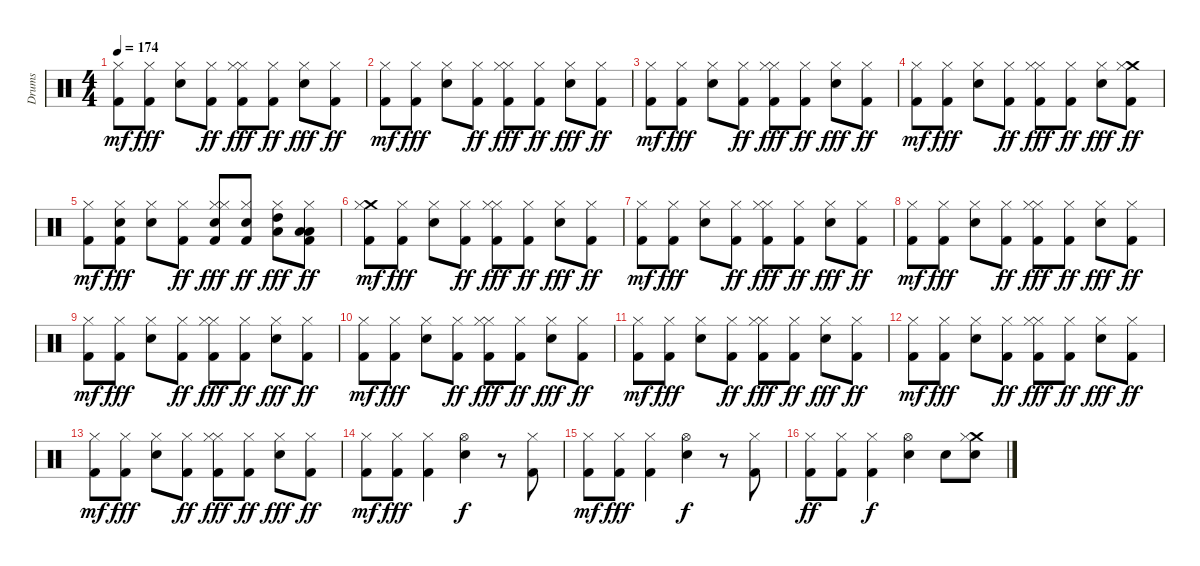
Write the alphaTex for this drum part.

\track ("Drums" "Drums") {instrument percussion}
\staff {score}
\articulation defaults
\ts (4 4)
\tempo 174
\clef neutral
\ks c
("Kick (hit) 2" "Hi-Hat (closed)").8{dy mf} ("Hi-Hat (closed)" "Kick (hit) 2").8{dy fff} ("Hi-Hat (closed)" "Snare (hit) 2").8 ("Hi-Hat (closed)" "Kick (hit) 2").8{dy ff} ("Hi-Hat (closed)" "Hi-Hat (closed)" "Kick (hit) 2").8{dy fff} ("Hi-Hat (closed)" "Kick (hit) 2").8{dy ff} ("Hi-Hat (closed)" "Snare (hit) 2").8{dy fff} ("Hi-Hat (closed)" "Kick (hit) 2").8{dy ff} |
("Kick (hit) 2" "Hi-Hat (closed)").8{dy mf} ("Hi-Hat (closed)" "Kick (hit) 2").8{dy fff} ("Hi-Hat (closed)" "Snare (hit) 2").8 ("Hi-Hat (closed)" "Kick (hit) 2").8{dy ff} ("Hi-Hat (closed)" "Hi-Hat (closed)" "Kick (hit) 2").8{dy fff} ("Hi-Hat (closed)" "Kick (hit) 2").8{dy ff} ("Hi-Hat (closed)" "Snare (hit) 2").8{dy fff} ("Hi-Hat (closed)" "Kick (hit) 2").8{dy ff} |
("Kick (hit) 2" "Hi-Hat (closed)").8{dy mf} ("Hi-Hat (closed)" "Kick (hit) 2").8{dy fff} ("Hi-Hat (closed)" "Snare (hit) 2").8 ("Hi-Hat (closed)" "Kick (hit) 2").8{dy ff} ("Hi-Hat (closed)" "Hi-Hat (closed)" "Kick (hit) 2").8{dy fff} ("Hi-Hat (closed)" "Kick (hit) 2").8{dy ff} ("Hi-Hat (closed)" "Snare (hit) 2").8{dy fff} ("Hi-Hat (closed)" "Kick (hit) 2").8{dy ff} |
("Kick (hit) 2" "Hi-Hat (closed)").8{dy mf} ("Hi-Hat (closed)" "Kick (hit) 2").8{dy fff} ("Hi-Hat (closed)" "Snare (hit) 2").8 ("Hi-Hat (closed)" "Kick (hit) 2").8{dy ff} ("Hi-Hat (closed)" "Hi-Hat (closed)" "Kick (hit) 2").8{dy fff} ("Hi-Hat (closed)" "Kick (hit) 2").8{dy ff} ("Hi-Hat (closed)" "Snare (hit) 2").8{dy fff} ("Crash medium (hit)" "Hi-Hat (closed)" "Kick (hit) 2").8{dy ff} |
("Kick (hit) 2" "Hi-Hat (closed)").8{dy mf} ("Hi-Hat (closed)" "Snare (hit) 2" "Kick (hit) 2").8{dy fff} ("Hi-Hat (closed)" "Snare (hit) 2").8 ("Hi-Hat (closed)" "Kick (hit) 2").8{dy ff} ("Hi-Hat (closed)" "Hi-Hat (closed)" "Kick (hit) 2" "Snare (hit) 2").8{dy fff} ("Hi-Hat (closed)" "Snare (hit) 2" "Kick (hit) 2").8{dy ff} ("Hi-Hat (closed)" "Low Tom (hit)" "High Tom (hit)").8{dy fff} ("Hi-Hat (closed)" "Low Floor Tom (hit)" "Low Tom (hit)" "Kick (hit) 2").8{dy ff} |
("Crash medium (hit)" "Hi-Hat (closed)" "Kick (hit) 2").8{dy mf} ("Hi-Hat (closed)" "Kick (hit) 2").8{dy fff} ("Hi-Hat (closed)" "Snare (hit) 2").8 ("Hi-Hat (closed)" "Kick (hit) 2").8{dy ff} ("Hi-Hat (closed)" "Hi-Hat (closed)" "Kick (hit) 2").8{dy fff} ("Hi-Hat (closed)" "Kick (hit) 2").8{dy ff} ("Hi-Hat (closed)" "Snare (hit) 2").8{dy fff} ("Hi-Hat (closed)" "Kick (hit) 2").8{dy ff} |
("Kick (hit) 2" "Hi-Hat (closed)").8{dy mf} ("Hi-Hat (closed)" "Kick (hit) 2").8{dy fff} ("Hi-Hat (closed)" "Snare (hit) 2").8 ("Hi-Hat (closed)" "Kick (hit) 2").8{dy ff} ("Hi-Hat (closed)" "Hi-Hat (closed)" "Kick (hit) 2").8{dy fff} ("Hi-Hat (closed)" "Kick (hit) 2").8{dy ff} ("Hi-Hat (closed)" "Snare (hit) 2").8{dy fff} ("Hi-Hat (closed)" "Kick (hit) 2").8{dy ff} |
("Kick (hit) 2" "Hi-Hat (closed)").8{dy mf} ("Hi-Hat (closed)" "Kick (hit) 2").8{dy fff} ("Hi-Hat (closed)" "Snare (hit) 2").8 ("Hi-Hat (closed)" "Kick (hit) 2").8{dy ff} ("Hi-Hat (closed)" "Hi-Hat (closed)" "Kick (hit) 2").8{dy fff} ("Hi-Hat (closed)" "Kick (hit) 2").8{dy ff} ("Hi-Hat (closed)" "Snare (hit) 2").8{dy fff} ("Hi-Hat (closed)" "Kick (hit) 2").8{dy ff} |
("Kick (hit) 2" "Hi-Hat (closed)").8{dy mf} ("Hi-Hat (closed)" "Kick (hit) 2").8{dy fff} ("Hi-Hat (closed)" "Snare (hit) 2").8 ("Hi-Hat (closed)" "Kick (hit) 2").8{dy ff} ("Hi-Hat (closed)" "Hi-Hat (closed)" "Kick (hit) 2").8{dy fff} ("Hi-Hat (closed)" "Kick (hit) 2").8{dy ff} ("Hi-Hat (closed)" "Snare (hit) 2").8{dy fff} ("Hi-Hat (closed)" "Kick (hit) 2").8{dy ff} |
("Kick (hit) 2" "Hi-Hat (closed)").8{dy mf} ("Hi-Hat (closed)" "Kick (hit) 2").8{dy fff} ("Hi-Hat (closed)" "Snare (hit) 2").8 ("Hi-Hat (closed)" "Kick (hit) 2").8{dy ff} ("Hi-Hat (closed)" "Hi-Hat (closed)" "Kick (hit) 2").8{dy fff} ("Hi-Hat (closed)" "Kick (hit) 2").8{dy ff} ("Hi-Hat (closed)" "Snare (hit) 2").8{dy fff} ("Hi-Hat (closed)" "Kick (hit) 2").8{dy ff} |
("Kick (hit) 2" "Hi-Hat (closed)").8{dy mf} ("Hi-Hat (closed)" "Kick (hit) 2").8{dy fff} ("Hi-Hat (closed)" "Snare (hit) 2").8 ("Hi-Hat (closed)" "Kick (hit) 2").8{dy ff} ("Hi-Hat (closed)" "Hi-Hat (closed)" "Kick (hit) 2").8{dy fff} ("Hi-Hat (closed)" "Kick (hit) 2").8{dy ff} ("Hi-Hat (closed)" "Snare (hit) 2").8{dy fff} ("Hi-Hat (closed)" "Kick (hit) 2").8{dy ff} |
("Kick (hit) 2" "Hi-Hat (closed)").8{dy mf} ("Hi-Hat (closed)" "Kick (hit) 2").8{dy fff} ("Hi-Hat (closed)" "Snare (hit) 2").8 ("Hi-Hat (closed)" "Kick (hit) 2").8{dy ff} ("Hi-Hat (closed)" "Hi-Hat (closed)" "Kick (hit) 2").8{dy fff} ("Hi-Hat (closed)" "Kick (hit) 2").8{dy ff} ("Hi-Hat (closed)" "Snare (hit) 2").8{dy fff} ("Hi-Hat (closed)" "Kick (hit) 2").8{dy ff} |
("Kick (hit) 2" "Hi-Hat (closed)").8{dy mf} ("Hi-Hat (closed)" "Kick (hit) 2").8{dy fff} ("Hi-Hat (closed)" "Snare (hit) 2").8 ("Hi-Hat (closed)" "Kick (hit) 2").8{dy ff} ("Hi-Hat (closed)" "Hi-Hat (closed)" "Kick (hit) 2").8{dy fff} ("Hi-Hat (closed)" "Kick (hit) 2").8{dy ff} ("Hi-Hat (closed)" "Snare (hit) 2").8{dy fff} ("Hi-Hat (closed)" "Kick (hit) 2").8{dy ff} |
("Hi-Hat (closed)" "Kick (hit) 2").8{dy mf} ("Hi-Hat (closed)" "Kick (hit) 2").8{dy fff} ("Hi-Hat (closed)" "Kick (hit) 2").4 ("Hi-Hat (open)" "Snare (hit) 2").4{dy f} r.8 ("Hi-Hat (closed)" "Kick (hit) 2").8 |
("Hi-Hat (closed)" "Kick (hit) 2").8{dy mf} ("Hi-Hat (closed)" "Kick (hit) 2").8{dy fff} ("Hi-Hat (closed)" "Kick (hit) 2").4 ("Hi-Hat (open)" "Snare (hit) 2").4{dy f} r.8 ("Hi-Hat (closed)" "Kick (hit) 2").8 |
("Hi-Hat (closed)" "Kick (hit) 2").8{dy ff} ("Hi-Hat (closed)" "Kick (hit) 2").8 ("Hi-Hat (closed)" "Kick (hit) 2").4{dy f} ("Hi-Hat (open)" "Snare (hit) 2").4 "Electric Snare (hit)".8 ("Crash medium (hit)" "Hi-Hat (closed)" "Electric Snare (hit)").8
